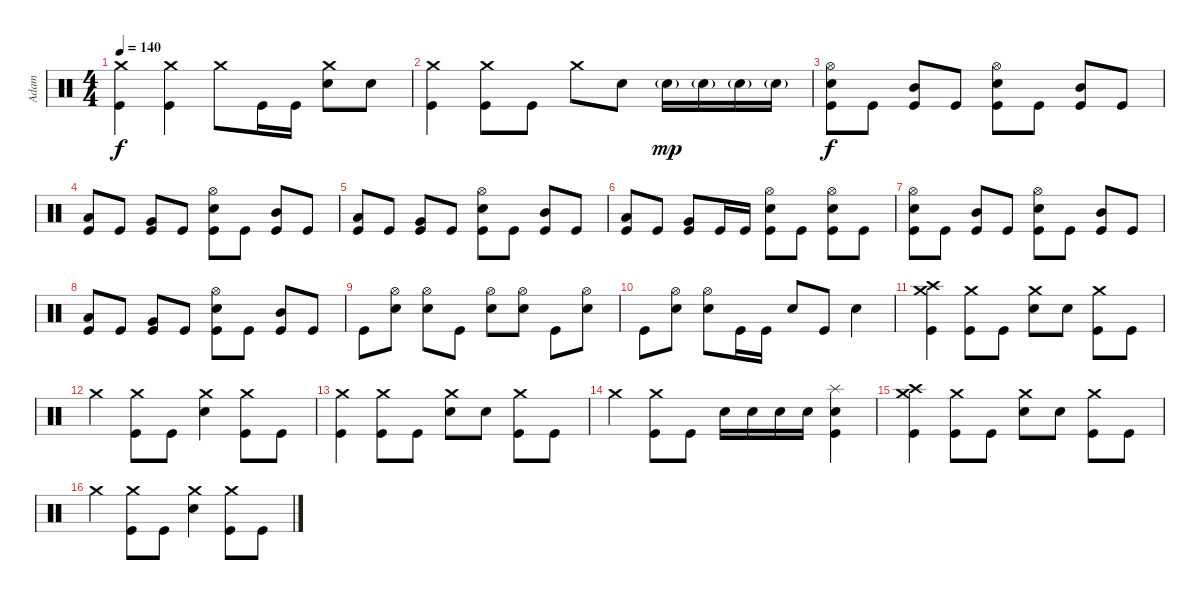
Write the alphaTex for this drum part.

\track ("Adam" "Adam") {instrument percussion}
\staff {score}
\articulation defaults
\ts (4 4)
\tempo 140
\clef neutral
\ks c
("Crash medium (hit)" "Kick (hit)").4{dy f} ("Crash medium (hit)" "Kick (hit)").4 "Crash medium (hit)".8 "Kick (hit)".16 "Kick (hit)".16 ("Crash medium (hit)" "Electric Snare (hit)").8 "Electric Snare (hit)".8 |
("Crash medium (hit)" "Kick (hit)").4 ("Crash medium (hit)" "Kick (hit)").8 "Kick (hit)".8 "Crash medium (hit)".8 "Electric Snare (hit)".8 "Electric Snare (hit)"{g}.16{dy mp} "Electric Snare (hit)"{g}.16 "Electric Snare (hit)"{g}.16 "Electric Snare (hit)"{g}.16 |
("Hi-Hat (open)" "Electric Snare (hit)" "Kick (hit)").8{dy f} "Kick (hit)".8 ("Mid Tom (hit)" "Kick (hit)").8 "Kick (hit)".8 ("Hi-Hat (open)" "Electric Snare (hit)" "Kick (hit)").8 "Kick (hit)".8 ("Mid Tom (hit)" "Kick (hit)").8 "Kick (hit)".8 |
("Low Tom (hit)" "Kick (hit)").8 "Kick (hit)".8 ("Very Low Tom (hit)" "Kick (hit)").8 "Kick (hit)".8 ("Hi-Hat (open)" "Electric Snare (hit)" "Kick (hit)").8 "Kick (hit)".8 ("Mid Tom (hit)" "Kick (hit)").8 "Kick (hit)".8 |
("Low Tom (hit)" "Kick (hit)").8 "Kick (hit)".8 ("Very Low Tom (hit)" "Kick (hit)").8 "Kick (hit)".8 ("Hi-Hat (open)" "Electric Snare (hit)" "Kick (hit)").8 "Kick (hit)".8 ("Mid Tom (hit)" "Kick (hit)").8 "Kick (hit)".8 |
("Low Tom (hit)" "Kick (hit)").8 "Kick (hit)".8 ("Very Low Tom (hit)" "Kick (hit)").8 "Kick (hit)".16 "Kick (hit)".16 ("Hi-Hat (open)" "Electric Snare (hit)" "Kick (hit)").8 "Kick (hit)".8 ("Hi-Hat (open)" "Electric Snare (hit)" "Kick (hit)").8 "Kick (hit)".8 |
("Hi-Hat (open)" "Electric Snare (hit)" "Kick (hit)").8 "Kick (hit)".8 ("Mid Tom (hit)" "Kick (hit)").8 "Kick (hit)".8 ("Hi-Hat (open)" "Electric Snare (hit)" "Kick (hit)").8 "Kick (hit)".8 ("Mid Tom (hit)" "Kick (hit)").8 "Kick (hit)".8 |
("Low Tom (hit)" "Kick (hit)").8 "Kick (hit)".8 ("Very Low Tom (hit)" "Kick (hit)").8 "Kick (hit)".8 ("Hi-Hat (open)" "Electric Snare (hit)" "Kick (hit)").8 "Kick (hit)".8 ("Mid Tom (hit)" "Kick (hit)").8 "Kick (hit)".8 |
"Kick (hit)".8 ("Hi-Hat (open)" "Electric Snare (hit)").8 ("Hi-Hat (open)" "Electric Snare (hit)").8 "Kick (hit)".8 ("Hi-Hat (open)" "Electric Snare (hit)").8 ("Hi-Hat (open)" "Electric Snare (hit)").8 "Kick (hit)".8 ("Hi-Hat (open)" "Electric Snare (hit)").8 |
"Kick (hit)".8 ("Hi-Hat (open)" "Electric Snare (hit)").8 ("Hi-Hat (open)" "Electric Snare (hit)").8 "Kick (hit)".16 "Kick (hit)".16 "Electric Snare (hit)".8 "Kick (hit)".8 "Electric Snare (hit)".4 |
("Crash high (hit)" "Crash medium (hit)" "Kick (hit)").4 ("Crash medium (hit)" "Kick (hit)").8 "Kick (hit)".8 ("Crash medium (hit)" "Electric Snare (hit)").8 "Electric Snare (hit)".8 ("Crash medium (hit)" "Kick (hit)").8 "Kick (hit)".8 |
"Crash medium (hit)".4 ("Crash medium (hit)" "Kick (hit)").8 "Kick (hit)".8 ("Crash medium (hit)" "Electric Snare (hit)").4 ("Crash medium (hit)" "Kick (hit)").8 "Kick (hit)".8 |
("Crash medium (hit)" "Kick (hit)").4 ("Crash medium (hit)" "Kick (hit)").8 "Kick (hit)".8 ("Crash medium (hit)" "Electric Snare (hit)").8 "Electric Snare (hit)".8 ("Crash medium (hit)" "Kick (hit)").8 "Kick (hit)".8 |
"Crash medium (hit)".4 ("Crash medium (hit)" "Kick (hit)").8 "Kick (hit)".8 "Electric Snare (hit)".16 "Electric Snare (hit)".16 "Electric Snare (hit)".16 "Electric Snare (hit)".16 ("Splash (hit)" "Electric Snare (hit)" "Kick (hit)").4 |
("Crash high (hit)" "Crash medium (hit)" "Kick (hit)").4 ("Crash medium (hit)" "Kick (hit)").8 "Kick (hit)".8 ("Crash medium (hit)" "Electric Snare (hit)").8 "Electric Snare (hit)".8 ("Crash medium (hit)" "Kick (hit)").8 "Kick (hit)".8 |
"Crash medium (hit)".4 ("Crash medium (hit)" "Kick (hit)").8 "Kick (hit)".8 ("Crash medium (hit)" "Electric Snare (hit)").4 ("Crash medium (hit)" "Kick (hit)").8 "Kick (hit)".8
